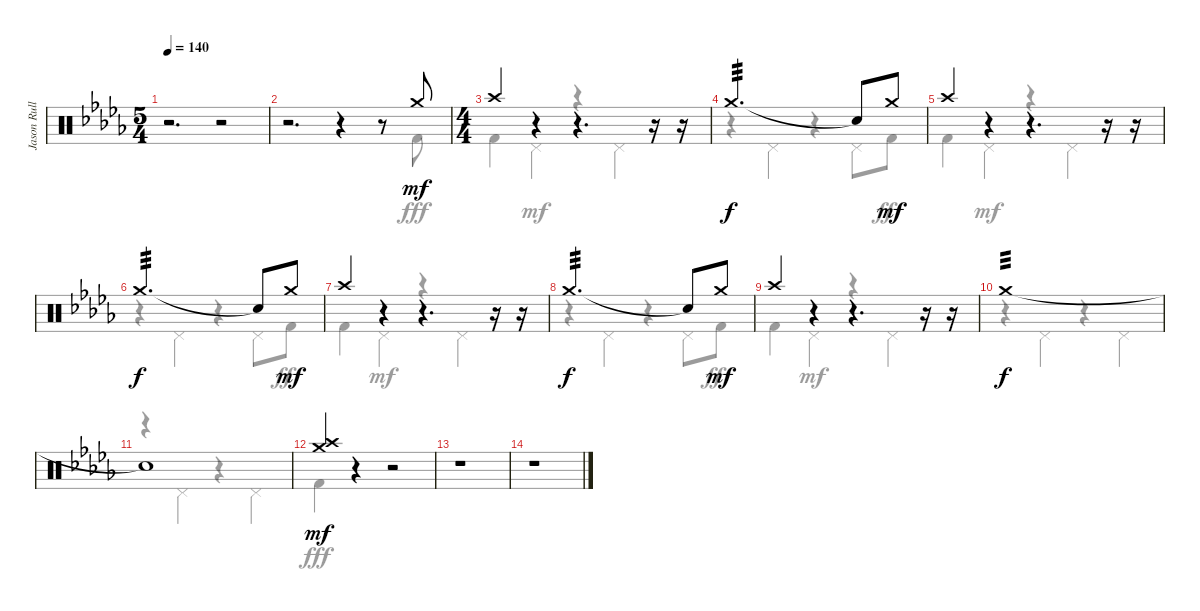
\track ("Jason Rullo Drums" "Jason Rull") {instrument percussion}
\staff {score}
\articulation defaults
\voice
\ts (5 4)
\tempo 140
\clef neutral
\ks bbminor
r.2{d dy ppp} r.2 |
r.2{d} r.4 r.8 "Crash medium (hit)".8{dy mf} |
\ts (4 4)
"Crash high (hit)".4 r.4 r.4{d} r.16 r.16{volume 5} |
"Crash medium (hit)".2{d tp 3 dy f volume 16} "Snare (hit)"{t}.8 "Crash medium (hit)".8{dy mf} |
"Crash high (hit)".4 r.4 r.4{d} r.16 r.16{volume 5} |
"Crash medium (hit)".2{d tp 3 dy f volume 16} "Snare (hit)"{t}.8 "Crash medium (hit)".8{dy mf} |
"Crash high (hit)".4 r.4 r.4{d} r.16 r.16{volume 5} |
"Crash medium (hit)".2{d tp 3 dy f volume 16} "Snare (hit)"{t}.8 "Crash medium (hit)".8{dy mf} |
"Crash high (hit)".4 r.4 r.4{d} r.16 r.16{volume 5} |
"Crash medium (hit)".1{tp 3 dy f volume 16} |
"Snare (hit)"{t}.1 |
("Crash high (hit)" "Crash medium (hit)").4{dy mf} r.4 r.2 |
r.1 |
r.1
\voice
\clef neutral
\ottava regular
\simile none
\ks bbminor
r.2{d dy fff} r.2 |
r.2{d} r.4 r.8 "Kick (hit) 2".8 |
"Kick (hit) 2".4 "Pedal Hi-Hat (hit)".4{dy mf} r.4 "Pedal Hi-Hat (hit)".4 |
r.4 "Pedal Hi-Hat (hit)".4 r.4 "Pedal Hi-Hat (hit)".8 "Kick (hit) 2".8{dy fff} |
"Kick (hit) 2".4 "Pedal Hi-Hat (hit)".4{dy mf} r.4 "Pedal Hi-Hat (hit)".4 |
r.4 "Pedal Hi-Hat (hit)".4 r.4 "Pedal Hi-Hat (hit)".8 "Kick (hit) 2".8{dy fff} |
"Kick (hit) 2".4 "Pedal Hi-Hat (hit)".4{dy mf} r.4 "Pedal Hi-Hat (hit)".4 |
r.4 "Pedal Hi-Hat (hit)".4 r.4 "Pedal Hi-Hat (hit)".8 "Kick (hit) 2".8{dy fff} |
"Kick (hit) 2".4 "Pedal Hi-Hat (hit)".4{dy mf} r.4 "Pedal Hi-Hat (hit)".4 |
r.4 "Pedal Hi-Hat (hit)".4 r.4 "Pedal Hi-Hat (hit)".4 |
r.4 "Pedal Hi-Hat (hit)".4 r.4 "Pedal Hi-Hat (hit)".4 |
"Kick (hit) 2".4{dy fff} r.4 r.2 |
r.1 |
r.1
